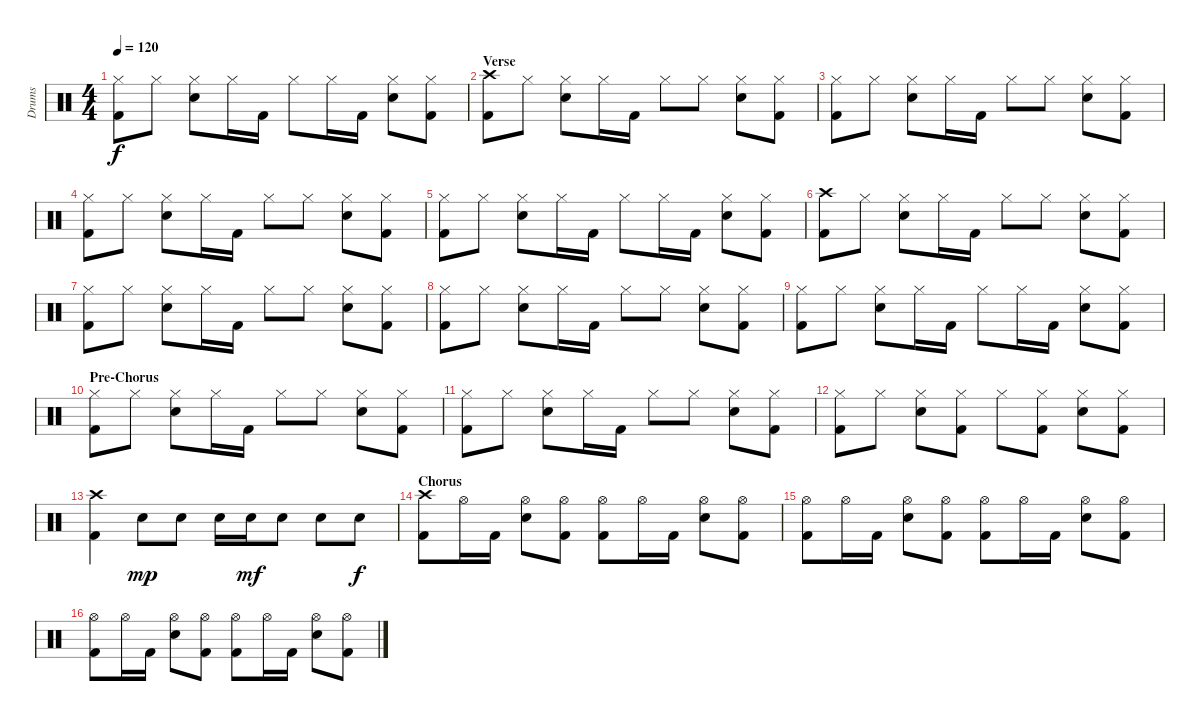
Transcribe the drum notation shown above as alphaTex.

\track ("Drums" "Drums") {instrument percussion}
\staff {score}
\articulation defaults
\ts (4 4)
\tempo 120
\clef neutral
\ks c
("Hi-Hat (closed)" "Kick (hit) 2").8{dy f} "Hi-Hat (closed)".8 ("Hi-Hat (closed)" "Electric Snare (hit)").8 "Hi-Hat (closed)".16 "Kick (hit) 2".16 "Hi-Hat (closed)".8 "Hi-Hat (closed)".16 "Kick (hit) 2".16 ("Hi-Hat (closed)" "Electric Snare (hit)").8 ("Hi-Hat (closed)" "Kick (hit) 2").8 |
\section ("" "Verse")
("Crash high (hit)" "Kick (hit) 2").8 "Hi-Hat (closed)".8 ("Hi-Hat (closed)" "Electric Snare (hit)").8 "Hi-Hat (closed)".16 "Kick (hit) 2".16 "Hi-Hat (closed)".8 "Hi-Hat (closed)".8 ("Hi-Hat (closed)" "Electric Snare (hit)").8 ("Hi-Hat (closed)" "Kick (hit) 2").8 |
("Hi-Hat (closed)" "Kick (hit) 2").8 "Hi-Hat (closed)".8 ("Hi-Hat (closed)" "Electric Snare (hit)").8 "Hi-Hat (closed)".16 "Kick (hit) 2".16 "Hi-Hat (closed)".8 "Hi-Hat (closed)".8 ("Hi-Hat (closed)" "Electric Snare (hit)").8 ("Hi-Hat (closed)" "Kick (hit) 2").8 |
("Hi-Hat (closed)" "Kick (hit) 2").8 "Hi-Hat (closed)".8 ("Hi-Hat (closed)" "Electric Snare (hit)").8 "Hi-Hat (closed)".16 "Kick (hit) 2".16 "Hi-Hat (closed)".8 "Hi-Hat (closed)".8 ("Hi-Hat (closed)" "Electric Snare (hit)").8 ("Hi-Hat (closed)" "Kick (hit) 2").8 |
("Hi-Hat (closed)" "Kick (hit) 2").8 "Hi-Hat (closed)".8 ("Hi-Hat (closed)" "Electric Snare (hit)").8 "Hi-Hat (closed)".16 "Kick (hit) 2".16 "Hi-Hat (closed)".8 "Hi-Hat (closed)".16 "Kick (hit) 2".16 ("Hi-Hat (closed)" "Electric Snare (hit)").8 ("Hi-Hat (closed)" "Kick (hit) 2").8 |
("Crash high (hit)" "Kick (hit) 2").8 "Hi-Hat (closed)".8 ("Hi-Hat (closed)" "Electric Snare (hit)").8 "Hi-Hat (closed)".16 "Kick (hit) 2".16 "Hi-Hat (closed)".8 "Hi-Hat (closed)".8 ("Hi-Hat (closed)" "Electric Snare (hit)").8 ("Hi-Hat (closed)" "Kick (hit) 2").8 |
("Hi-Hat (closed)" "Kick (hit) 2").8 "Hi-Hat (closed)".8 ("Hi-Hat (closed)" "Electric Snare (hit)").8 "Hi-Hat (closed)".16 "Kick (hit) 2".16 "Hi-Hat (closed)".8 "Hi-Hat (closed)".8 ("Hi-Hat (closed)" "Electric Snare (hit)").8 ("Hi-Hat (closed)" "Kick (hit) 2").8 |
("Hi-Hat (closed)" "Kick (hit) 2").8 "Hi-Hat (closed)".8 ("Hi-Hat (closed)" "Electric Snare (hit)").8 "Hi-Hat (closed)".16 "Kick (hit) 2".16 "Hi-Hat (closed)".8 "Hi-Hat (closed)".8 ("Hi-Hat (closed)" "Electric Snare (hit)").8 ("Hi-Hat (closed)" "Kick (hit) 2").8 |
("Hi-Hat (closed)" "Kick (hit) 2").8 "Hi-Hat (closed)".8 ("Hi-Hat (closed)" "Electric Snare (hit)").8 "Hi-Hat (closed)".16 "Kick (hit) 2".16 "Hi-Hat (closed)".8 "Hi-Hat (closed)".16 "Kick (hit) 2".16 ("Hi-Hat (closed)" "Electric Snare (hit)").8 ("Hi-Hat (closed)" "Kick (hit) 2").8 |
\section ("" "Pre-Chorus")
("Hi-Hat (closed)" "Kick (hit) 2").8 "Hi-Hat (closed)".8 ("Hi-Hat (closed)" "Electric Snare (hit)").8 "Hi-Hat (closed)".16 "Kick (hit) 2".16 "Hi-Hat (closed)".8 "Hi-Hat (closed)".8 ("Hi-Hat (closed)" "Electric Snare (hit)").8 ("Hi-Hat (closed)" "Kick (hit) 2").8 |
("Hi-Hat (closed)" "Kick (hit) 2").8 "Hi-Hat (closed)".8 ("Hi-Hat (closed)" "Electric Snare (hit)").8 "Hi-Hat (closed)".16 "Kick (hit) 2".16 "Hi-Hat (closed)".8 "Hi-Hat (closed)".8 ("Hi-Hat (closed)" "Electric Snare (hit)").8 ("Hi-Hat (closed)" "Kick (hit) 2").8 |
("Hi-Hat (closed)" "Kick (hit) 2").8 "Hi-Hat (closed)".8 ("Hi-Hat (closed)" "Electric Snare (hit)").8 ("Hi-Hat (closed)" "Kick (hit) 2").8 "Hi-Hat (closed)".8 ("Hi-Hat (closed)" "Kick (hit) 2").8 ("Hi-Hat (closed)" "Electric Snare (hit)").8 ("Hi-Hat (closed)" "Kick (hit) 2").8 |
("Crash high (hit)" "Kick (hit) 2").4 "Electric Snare (hit)".8{dy mp} "Electric Snare (hit)".8 "Electric Snare (hit)".16 "Electric Snare (hit)".16{dy mf} "Electric Snare (hit)".8 "Electric Snare (hit)".8 "Electric Snare (hit)".8{dy f} |
\section ("" "Chorus")
("Crash high (hit)" "Kick (hit) 2").8 "Hi-Hat (open)".16 "Kick (hit) 2".16 ("Hi-Hat (open)" "Electric Snare (hit)").8 ("Hi-Hat (open)" "Kick (hit) 2").8 ("Hi-Hat (open)" "Kick (hit) 2").8 "Hi-Hat (open)".16 "Kick (hit) 2".16 ("Hi-Hat (open)" "Electric Snare (hit)").8 ("Hi-Hat (open)" "Kick (hit) 2").8 |
("Hi-Hat (open)" "Kick (hit) 2").8 "Hi-Hat (open)".16 "Kick (hit) 2".16 ("Hi-Hat (open)" "Electric Snare (hit)").8 ("Hi-Hat (open)" "Kick (hit) 2").8 ("Hi-Hat (open)" "Kick (hit) 2").8 "Hi-Hat (open)".16 "Kick (hit) 2".16 ("Hi-Hat (open)" "Electric Snare (hit)").8 ("Hi-Hat (open)" "Kick (hit) 2").8 |
("Hi-Hat (open)" "Kick (hit) 2").8 "Hi-Hat (open)".16 "Kick (hit) 2".16 ("Hi-Hat (open)" "Electric Snare (hit)").8 ("Hi-Hat (open)" "Kick (hit) 2").8 ("Hi-Hat (open)" "Kick (hit) 2").8 "Hi-Hat (open)".16 "Kick (hit) 2".16 ("Hi-Hat (open)" "Electric Snare (hit)").8 ("Hi-Hat (open)" "Kick (hit) 2").8
